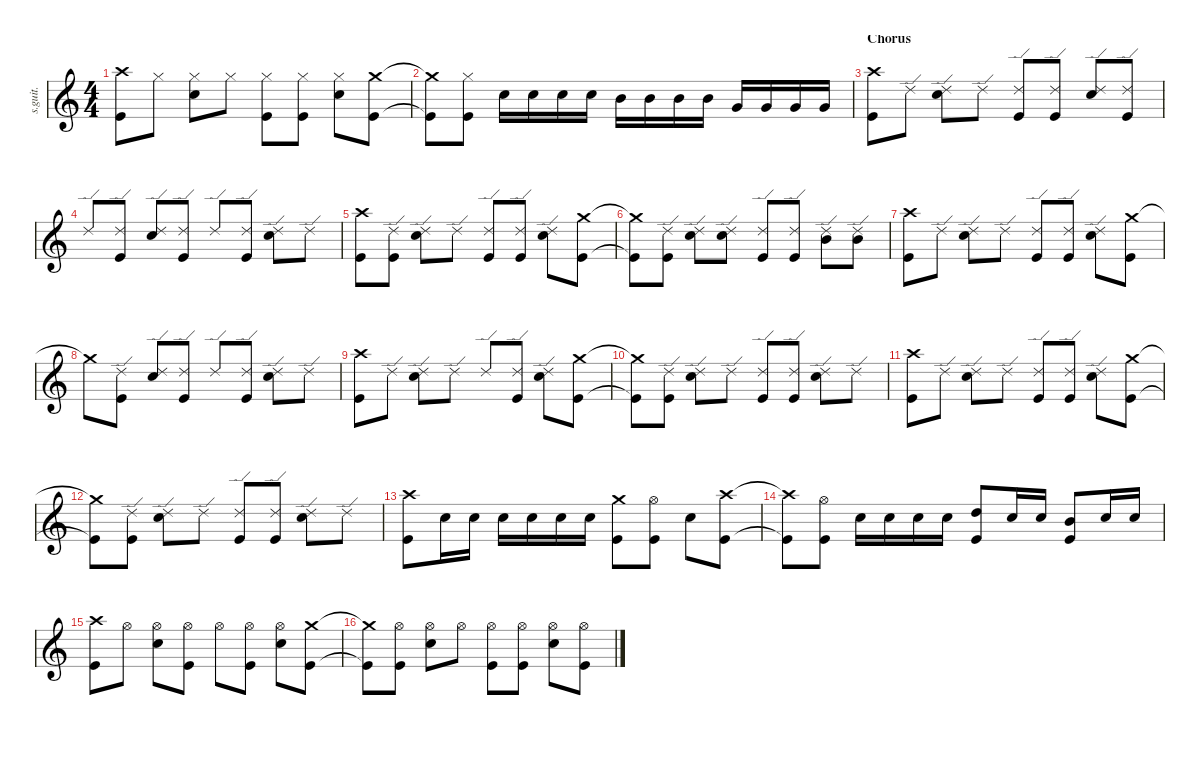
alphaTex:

\defaultSystemsLayout 4
\hideDynamics
\bracketExtendMode nobrackets
\track ("Tre Cool" "s.guit.") {instrument percussion}
\staff {score}
\articulation defaults
\ts (4 4)
\tempo (175 hide)
\clef g2
\ks c
("Crash high (hit)" "Kick (hit)").8{lyrics (0 "") lyrics (1 "") lyrics (2 "") lyrics (3 "") lyrics (4 "") dy f} "Hi-Hat (closed)".8{lyrics (0 "") lyrics (1 "") lyrics (2 "") lyrics (3 "") lyrics (4 "")} ("Hi-Hat (closed)" "Snare (hit) 2").8{lyrics (0 "") lyrics (1 "") lyrics (2 "") lyrics (3 "") lyrics (4 "")} "Hi-Hat (closed)".8{lyrics (0 "") lyrics (1 "") lyrics (2 "") lyrics (3 "") lyrics (4 "")} ("Hi-Hat (closed)" "Kick (hit)").8{lyrics (0 "") lyrics (1 "") lyrics (2 "") lyrics (3 "") lyrics (4 "")} ("Hi-Hat (closed)" "Kick (hit)").8{lyrics (0 "") lyrics (1 "") lyrics (2 "") lyrics (3 "") lyrics (4 "")} ("Hi-Hat (closed)" "Snare (hit) 2").8{lyrics (0 "") lyrics (1 "") lyrics (2 "") lyrics (3 "") lyrics (4 "")} ("Crash medium (hit)" "Kick (hit)").8{lyrics (0 "") lyrics (1 "") lyrics (2 "") lyrics (3 "") lyrics (4 "")} |
("Crash medium (hit)"{t} "Kick (hit)"{t}).8{lyrics (0 "") lyrics (1 "") lyrics (2 "") lyrics (3 "") lyrics (4 "")} ("Hi-Hat (closed)" "Kick (hit)").8{lyrics (0 "") lyrics (1 "") lyrics (2 "") lyrics (3 "") lyrics (4 "")} "Snare (hit) 2".16{lyrics (0 "") lyrics (1 "") lyrics (2 "") lyrics (3 "") lyrics (4 "")} "Snare (hit) 2".16{lyrics (0 "") lyrics (1 "") lyrics (2 "") lyrics (3 "") lyrics (4 "")} "Snare (hit) 2".16{lyrics (0 "") lyrics (1 "") lyrics (2 "") lyrics (3 "") lyrics (4 "")} "Snare (hit) 2".16{lyrics (0 "") lyrics (1 "") lyrics (2 "") lyrics (3 "") lyrics (4 "")} "Mid Tom (hit)".16{lyrics (0 "") lyrics (1 "") lyrics (2 "") lyrics (3 "") lyrics (4 "") dy fff} "Mid Tom (hit)".16{lyrics (0 "") lyrics (1 "") lyrics (2 "") lyrics (3 "") lyrics (4 "")} "Mid Tom (hit)".16{lyrics (0 "") lyrics (1 "") lyrics (2 "") lyrics (3 "") lyrics (4 "")} "Mid Tom (hit)".16{lyrics (0 "") lyrics (1 "") lyrics (2 "") lyrics (3 "") lyrics (4 "")} "Very Low Tom (hit)".16{lyrics (0 "") lyrics (1 "") lyrics (2 "") lyrics (3 "") lyrics (4 "") dy f} "Very Low Tom (hit)".16{lyrics (0 "") lyrics (1 "") lyrics (2 "") lyrics (3 "") lyrics (4 "")} "Very Low Tom (hit)".16{lyrics (0 "") lyrics (1 "") lyrics (2 "") lyrics (3 "") lyrics (4 "")} "Very Low Tom (hit)".16{lyrics (0 "") lyrics (1 "") lyrics (2 "") lyrics (3 "") lyrics (4 "")} |
\section ("" "Chorus")
("Crash high (hit)" "Kick (hit)").8{lyrics (0 "") lyrics (1 "") lyrics (2 "") lyrics (3 "") lyrics (4 "")} "Ride (edge) 2".8{lyrics (0 "") lyrics (1 "") lyrics (2 "") lyrics (3 "") lyrics (4 "")} ("Ride (edge) 2" "Snare (hit) 2").8{lyrics (0 "") lyrics (1 "") lyrics (2 "") lyrics (3 "") lyrics (4 "")} "Ride (edge) 2".8{lyrics (0 "") lyrics (1 "") lyrics (2 "") lyrics (3 "") lyrics (4 "")} ("Ride (edge) 2" "Kick (hit)").8{lyrics (0 "") lyrics (1 "") lyrics (2 "") lyrics (3 "") lyrics (4 "")} ("Ride (edge) 2" "Kick (hit)").8{lyrics (0 "") lyrics (1 "") lyrics (2 "") lyrics (3 "") lyrics (4 "")} ("Ride (edge) 2" "Snare (hit) 2").8{lyrics (0 "") lyrics (1 "") lyrics (2 "") lyrics (3 "") lyrics (4 "")} ("Ride (edge) 2" "Kick (hit)").8{lyrics (0 "") lyrics (1 "") lyrics (2 "") lyrics (3 "") lyrics (4 "")} |
"Ride (edge) 2".8{lyrics (0 "") lyrics (1 "") lyrics (2 "") lyrics (3 "") lyrics (4 "")} ("Ride (edge) 2" "Kick (hit)").8{lyrics (0 "") lyrics (1 "") lyrics (2 "") lyrics (3 "") lyrics (4 "")} ("Ride (edge) 2" "Snare (hit) 2").8{lyrics (0 "") lyrics (1 "") lyrics (2 "") lyrics (3 "") lyrics (4 "")} ("Ride (edge) 2" "Kick (hit)").8{lyrics (0 "") lyrics (1 "") lyrics (2 "") lyrics (3 "") lyrics (4 "")} "Ride (edge) 2".8{lyrics (0 "") lyrics (1 "") lyrics (2 "") lyrics (3 "") lyrics (4 "")} ("Ride (edge) 2" "Kick (hit)").8{lyrics (0 "") lyrics (1 "") lyrics (2 "") lyrics (3 "") lyrics (4 "")} ("Ride (edge) 2" "Snare (hit) 2").8{lyrics (0 "") lyrics (1 "") lyrics (2 "") lyrics (3 "") lyrics (4 "")} "Ride (edge) 2".8{lyrics (0 "") lyrics (1 "") lyrics (2 "") lyrics (3 "") lyrics (4 "")} |
("Crash high (hit)" "Kick (hit)").8{lyrics (0 "") lyrics (1 "") lyrics (2 "") lyrics (3 "") lyrics (4 "")} ("Ride (edge) 2" "Kick (hit)").8{lyrics (0 "") lyrics (1 "") lyrics (2 "") lyrics (3 "") lyrics (4 "")} ("Ride (edge) 2" "Snare (hit) 2").8{lyrics (0 "") lyrics (1 "") lyrics (2 "") lyrics (3 "") lyrics (4 "")} "Ride (edge) 2".8{lyrics (0 "") lyrics (1 "") lyrics (2 "") lyrics (3 "") lyrics (4 "")} ("Ride (edge) 2" "Kick (hit)").8{lyrics (0 "") lyrics (1 "") lyrics (2 "") lyrics (3 "") lyrics (4 "")} ("Ride (edge) 2" "Kick (hit)").8{lyrics (0 "") lyrics (1 "") lyrics (2 "") lyrics (3 "") lyrics (4 "")} ("Ride (edge) 2" "Snare (hit) 2").8{lyrics (0 "") lyrics (1 "") lyrics (2 "") lyrics (3 "") lyrics (4 "")} ("Crash medium (hit)" "Kick (hit)").8{lyrics (0 "") lyrics (1 "") lyrics (2 "") lyrics (3 "") lyrics (4 "")} |
("Crash medium (hit)"{t} "Kick (hit)"{t}).8{lyrics (0 "") lyrics (1 "") lyrics (2 "") lyrics (3 "") lyrics (4 "")} ("Ride (edge) 2" "Kick (hit)").8{lyrics (0 "") lyrics (1 "") lyrics (2 "") lyrics (3 "") lyrics (4 "")} ("Ride (edge) 2" "Snare (hit) 2").8{lyrics (0 "") lyrics (1 "") lyrics (2 "") lyrics (3 "") lyrics (4 "")} ("Ride (edge) 2" "Snare (hit) 2").8{lyrics (0 "") lyrics (1 "") lyrics (2 "") lyrics (3 "") lyrics (4 "")} ("Ride (edge) 2" "Kick (hit)").8{lyrics (0 "") lyrics (1 "") lyrics (2 "") lyrics (3 "") lyrics (4 "")} ("Ride (edge) 2" "Kick (hit)").8{lyrics (0 "") lyrics (1 "") lyrics (2 "") lyrics (3 "") lyrics (4 "")} ("Ride (edge) 2" "Mid Tom (hit)").8{lyrics (0 "") lyrics (1 "") lyrics (2 "") lyrics (3 "") lyrics (4 "")} ("Ride (edge) 2" "Mid Tom (hit)").8{lyrics (0 "") lyrics (1 "") lyrics (2 "") lyrics (3 "") lyrics (4 "")} |
("Crash high (hit)" "Kick (hit)").8{lyrics (0 "") lyrics (1 "") lyrics (2 "") lyrics (3 "") lyrics (4 "")} "Ride (edge) 2".8{lyrics (0 "") lyrics (1 "") lyrics (2 "") lyrics (3 "") lyrics (4 "")} ("Ride (edge) 2" "Snare (hit) 2").8{lyrics (0 "") lyrics (1 "") lyrics (2 "") lyrics (3 "") lyrics (4 "")} "Ride (edge) 2".8{lyrics (0 "") lyrics (1 "") lyrics (2 "") lyrics (3 "") lyrics (4 "")} ("Ride (edge) 2" "Kick (hit)").8{lyrics (0 "") lyrics (1 "") lyrics (2 "") lyrics (3 "") lyrics (4 "")} ("Ride (edge) 2" "Kick (hit)").8{lyrics (0 "") lyrics (1 "") lyrics (2 "") lyrics (3 "") lyrics (4 "")} ("Ride (edge) 2" "Snare (hit) 2").8{lyrics (0 "") lyrics (1 "") lyrics (2 "") lyrics (3 "") lyrics (4 "")} ("Crash medium (hit)" "Kick (hit)").8{lyrics (0 "") lyrics (1 "") lyrics (2 "") lyrics (3 "") lyrics (4 "")} |
"Crash medium (hit)"{t}.8{lyrics (0 "") lyrics (1 "") lyrics (2 "") lyrics (3 "") lyrics (4 "")} ("Ride (edge) 2" "Kick (hit)").8{lyrics (0 "") lyrics (1 "") lyrics (2 "") lyrics (3 "") lyrics (4 "")} ("Ride (edge) 2" "Snare (hit) 2").8{lyrics (0 "") lyrics (1 "") lyrics (2 "") lyrics (3 "") lyrics (4 "")} ("Ride (edge) 2" "Kick (hit)").8{lyrics (0 "") lyrics (1 "") lyrics (2 "") lyrics (3 "") lyrics (4 "")} "Ride (edge) 2".8{lyrics (0 "") lyrics (1 "") lyrics (2 "") lyrics (3 "") lyrics (4 "")} ("Ride (edge) 2" "Kick (hit)").8{lyrics (0 "") lyrics (1 "") lyrics (2 "") lyrics (3 "") lyrics (4 "")} ("Ride (edge) 2" "Snare (hit) 2").8{lyrics (0 "") lyrics (1 "") lyrics (2 "") lyrics (3 "") lyrics (4 "")} "Ride (edge) 2".8{lyrics (0 "") lyrics (1 "") lyrics (2 "") lyrics (3 "") lyrics (4 "")} |
("Crash high (hit)" "Kick (hit)").8{lyrics (0 "") lyrics (1 "") lyrics (2 "") lyrics (3 "") lyrics (4 "")} "Ride (edge) 2".8{lyrics (0 "") lyrics (1 "") lyrics (2 "") lyrics (3 "") lyrics (4 "")} ("Ride (edge) 2" "Snare (hit) 2").8{lyrics (0 "") lyrics (1 "") lyrics (2 "") lyrics (3 "") lyrics (4 "")} "Ride (edge) 2".8{lyrics (0 "") lyrics (1 "") lyrics (2 "") lyrics (3 "") lyrics (4 "")} "Ride (edge) 2".8{lyrics (0 "") lyrics (1 "") lyrics (2 "") lyrics (3 "") lyrics (4 "")} ("Ride (edge) 2" "Kick (hit)").8{lyrics (0 "") lyrics (1 "") lyrics (2 "") lyrics (3 "") lyrics (4 "")} ("Ride (edge) 2" "Snare (hit) 2").8{lyrics (0 "") lyrics (1 "") lyrics (2 "") lyrics (3 "") lyrics (4 "")} ("Crash medium (hit)" "Kick (hit)").8{lyrics (0 "") lyrics (1 "") lyrics (2 "") lyrics (3 "") lyrics (4 "")} |
("Crash medium (hit)"{t} "Kick (hit)"{t}).8{lyrics (0 "") lyrics (1 "") lyrics (2 "") lyrics (3 "") lyrics (4 "")} ("Ride (edge) 2" "Kick (hit)").8{lyrics (0 "") lyrics (1 "") lyrics (2 "") lyrics (3 "") lyrics (4 "")} ("Ride (edge) 2" "Snare (hit) 2").8{lyrics (0 "") lyrics (1 "") lyrics (2 "") lyrics (3 "") lyrics (4 "")} "Ride (edge) 2".8{lyrics (0 "") lyrics (1 "") lyrics (2 "") lyrics (3 "") lyrics (4 "")} ("Ride (edge) 2" "Kick (hit)").8{lyrics (0 "") lyrics (1 "") lyrics (2 "") lyrics (3 "") lyrics (4 "")} ("Ride (edge) 2" "Kick (hit)").8{lyrics (0 "") lyrics (1 "") lyrics (2 "") lyrics (3 "") lyrics (4 "")} ("Ride (edge) 2" "Snare (hit) 2").8{lyrics (0 "") lyrics (1 "") lyrics (2 "") lyrics (3 "") lyrics (4 "")} "Ride (edge) 2".8{lyrics (0 "") lyrics (1 "") lyrics (2 "") lyrics (3 "") lyrics (4 "")} |
("Crash high (hit)" "Kick (hit)").8{lyrics (0 "") lyrics (1 "") lyrics (2 "") lyrics (3 "") lyrics (4 "")} "Ride (edge) 2".8{lyrics (0 "") lyrics (1 "") lyrics (2 "") lyrics (3 "") lyrics (4 "")} ("Ride (edge) 2" "Snare (hit) 2").8{lyrics (0 "") lyrics (1 "") lyrics (2 "") lyrics (3 "") lyrics (4 "")} "Ride (edge) 2".8{lyrics (0 "") lyrics (1 "") lyrics (2 "") lyrics (3 "") lyrics (4 "")} ("Ride (edge) 2" "Kick (hit)").8{lyrics (0 "") lyrics (1 "") lyrics (2 "") lyrics (3 "") lyrics (4 "")} ("Ride (edge) 2" "Kick (hit)").8{lyrics (0 "") lyrics (1 "") lyrics (2 "") lyrics (3 "") lyrics (4 "")} ("Ride (edge) 2" "Snare (hit) 2").8{lyrics (0 "") lyrics (1 "") lyrics (2 "") lyrics (3 "") lyrics (4 "")} ("Crash medium (hit)" "Kick (hit)").8{lyrics (0 "") lyrics (1 "") lyrics (2 "") lyrics (3 "") lyrics (4 "")} |
("Crash medium (hit)"{t} "Kick (hit)"{t}).8{lyrics (0 "") lyrics (1 "") lyrics (2 "") lyrics (3 "") lyrics (4 "")} ("Ride (edge) 2" "Kick (hit)").8{lyrics (0 "") lyrics (1 "") lyrics (2 "") lyrics (3 "") lyrics (4 "")} ("Ride (edge) 2" "Snare (hit) 2").8{lyrics (0 "") lyrics (1 "") lyrics (2 "") lyrics (3 "") lyrics (4 "")} "Ride (edge) 2".8{lyrics (0 "") lyrics (1 "") lyrics (2 "") lyrics (3 "") lyrics (4 "")} ("Ride (edge) 2" "Kick (hit)").8{lyrics (0 "") lyrics (1 "") lyrics (2 "") lyrics (3 "") lyrics (4 "")} ("Ride (edge) 2" "Kick (hit)").8{lyrics (0 "") lyrics (1 "") lyrics (2 "") lyrics (3 "") lyrics (4 "")} ("Ride (edge) 2" "Snare (hit) 2").8{lyrics (0 "") lyrics (1 "") lyrics (2 "") lyrics (3 "") lyrics (4 "")} "Ride (edge) 2".8{lyrics (0 "") lyrics (1 "") lyrics (2 "") lyrics (3 "") lyrics (4 "")} |
("Crash high (hit)" "Kick (hit)").8{lyrics (0 "") lyrics (1 "") lyrics (2 "") lyrics (3 "") lyrics (4 "")} "Snare (hit) 2".16{lyrics (0 "") lyrics (1 "") lyrics (2 "") lyrics (3 "") lyrics (4 "")} "Snare (hit) 2".16{lyrics (0 "") lyrics (1 "") lyrics (2 "") lyrics (3 "") lyrics (4 "")} "Snare (hit) 2".16{lyrics (0 "") lyrics (1 "") lyrics (2 "") lyrics (3 "") lyrics (4 "")} "Snare (hit) 2".16{lyrics (0 "") lyrics (1 "") lyrics (2 "") lyrics (3 "") lyrics (4 "")} "Snare (hit) 2".16{lyrics (0 "") lyrics (1 "") lyrics (2 "") lyrics (3 "") lyrics (4 "")} "Snare (hit) 2".16{lyrics (0 "") lyrics (1 "") lyrics (2 "") lyrics (3 "") lyrics (4 "")} ("Crash medium (hit)" "Kick (hit)").8{lyrics (0 "") lyrics (1 "") lyrics (2 "") lyrics (3 "") lyrics (4 "")} ("Hi-Hat (open)" "Kick (hit)").8{lyrics (0 "") lyrics (1 "") lyrics (2 "") lyrics (3 "") lyrics (4 "")} "Snare (hit) 2".8{lyrics (0 "") lyrics (1 "") lyrics (2 "") lyrics (3 "") lyrics (4 "")} ("Crash high (hit)" "Kick (hit)").8{lyrics (0 "") lyrics (1 "") lyrics (2 "") lyrics (3 "") lyrics (4 "")} |
("Crash high (hit)"{t} "Kick (hit)"{t}).8{lyrics (0 "") lyrics (1 "") lyrics (2 "") lyrics (3 "") lyrics (4 "")} ("Hi-Hat (open)" "Kick (hit)").8{lyrics (0 "") lyrics (1 "") lyrics (2 "") lyrics (3 "") lyrics (4 "")} "Snare (hit) 2".16{lyrics (0 "") lyrics (1 "") lyrics (2 "") lyrics (3 "") lyrics (4 "")} "Snare (hit) 2".16{lyrics (0 "") lyrics (1 "") lyrics (2 "") lyrics (3 "") lyrics (4 "")} "Snare (hit) 2".16{lyrics (0 "") lyrics (1 "") lyrics (2 "") lyrics (3 "") lyrics (4 "")} "Snare (hit) 2".16{lyrics (0 "") lyrics (1 "") lyrics (2 "") lyrics (3 "") lyrics (4 "")} ("High Tom (hit)" "Kick (hit)").8{lyrics (0 "") lyrics (1 "") lyrics (2 "") lyrics (3 "") lyrics (4 "") dy fff} "Snare (hit) 2".16{lyrics (0 "") lyrics (1 "") lyrics (2 "") lyrics (3 "") lyrics (4 "")} "Snare (hit) 2".16{lyrics (0 "") lyrics (1 "") lyrics (2 "") lyrics (3 "") lyrics (4 "")} ("Mid Tom (hit)" "Kick (hit)").8{lyrics (0 "") lyrics (1 "") lyrics (2 "") lyrics (3 "") lyrics (4 "")} "Snare (hit) 2".16{lyrics (0 "") lyrics (1 "") lyrics (2 "") lyrics (3 "") lyrics (4 "")} "Snare (hit) 2".16{lyrics (0 "") lyrics (1 "") lyrics (2 "") lyrics (3 "") lyrics (4 "")} |
("Crash high (hit)" "Kick (hit)").8{lyrics (0 "") lyrics (1 "") lyrics (2 "") lyrics (3 "") lyrics (4 "")} "Hi-Hat (open)".8{lyrics (0 "") lyrics (1 "") lyrics (2 "") lyrics (3 "") lyrics (4 "")} ("Hi-Hat (open)" "Snare (hit) 2").8{lyrics (0 "") lyrics (1 "") lyrics (2 "") lyrics (3 "") lyrics (4 "")} ("Hi-Hat (open)" "Kick (hit)").8{lyrics (0 "") lyrics (1 "") lyrics (2 "") lyrics (3 "") lyrics (4 "")} "Hi-Hat (open)".8{lyrics (0 "") lyrics (1 "") lyrics (2 "") lyrics (3 "") lyrics (4 "")} ("Hi-Hat (open)" "Kick (hit)").8{lyrics (0 "") lyrics (1 "") lyrics (2 "") lyrics (3 "") lyrics (4 "")} ("Hi-Hat (open)" "Snare (hit) 2").8{lyrics (0 "") lyrics (1 "") lyrics (2 "") lyrics (3 "") lyrics (4 "")} ("Crash medium (hit)" "Kick (hit)").8{lyrics (0 "") lyrics (1 "") lyrics (2 "") lyrics (3 "") lyrics (4 "")} |
("Crash medium (hit)"{t} "Kick (hit)"{t}).8{lyrics (0 "") lyrics (1 "") lyrics (2 "") lyrics (3 "") lyrics (4 "")} ("Hi-Hat (open)" "Kick (hit)").8{lyrics (0 "") lyrics (1 "") lyrics (2 "") lyrics (3 "") lyrics (4 "")} ("Hi-Hat (open)" "Snare (hit) 2").8{lyrics (0 "") lyrics (1 "") lyrics (2 "") lyrics (3 "") lyrics (4 "")} "Hi-Hat (open)".8{lyrics (0 "") lyrics (1 "") lyrics (2 "") lyrics (3 "") lyrics (4 "")} ("Hi-Hat (open)" "Kick (hit)").8{lyrics (0 "") lyrics (1 "") lyrics (2 "") lyrics (3 "") lyrics (4 "")} ("Hi-Hat (open)" "Kick (hit)").8{lyrics (0 "") lyrics (1 "") lyrics (2 "") lyrics (3 "") lyrics (4 "")} ("Hi-Hat (open)" "Snare (hit) 2").8{lyrics (0 "") lyrics (1 "") lyrics (2 "") lyrics (3 "") lyrics (4 "")} ("Hi-Hat (open)" "Kick (hit)").8{lyrics (0 "") lyrics (1 "") lyrics (2 "") lyrics (3 "") lyrics (4 "")}
